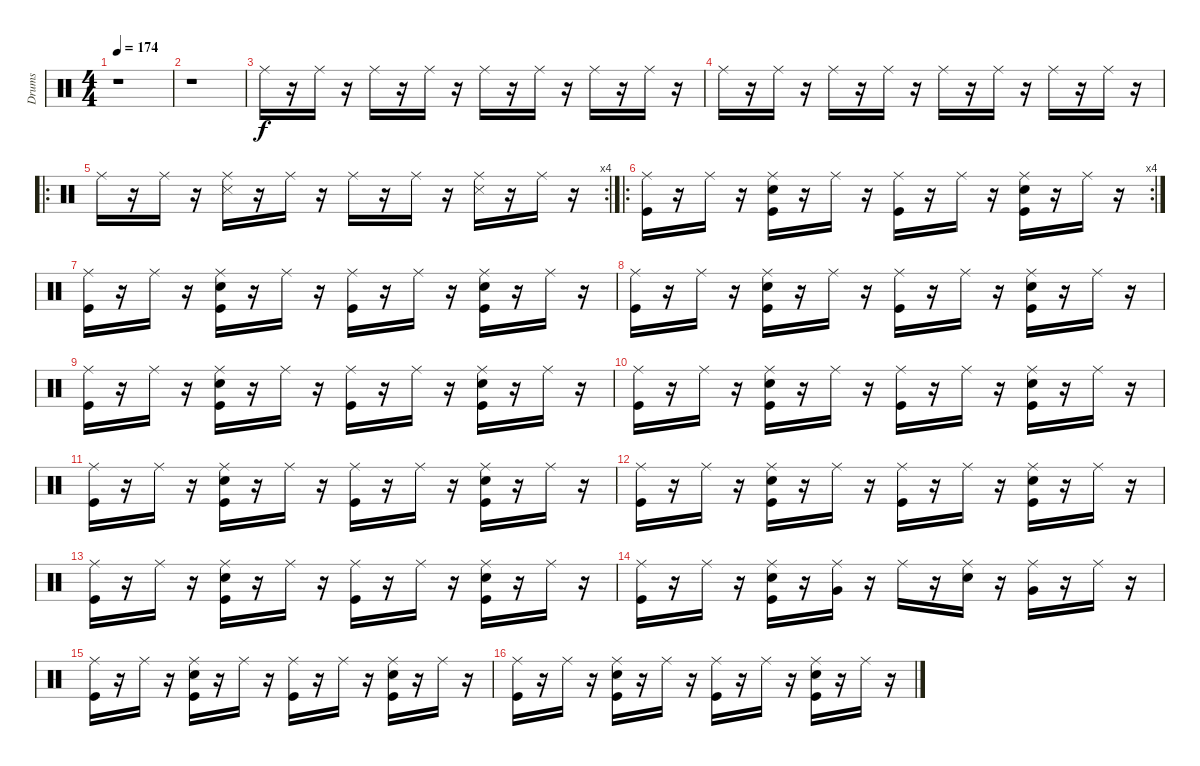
\track ("Drums" "Drums") {instrument percussion}
\staff {score}
\articulation defaults
\ts (4 4)
\tempo 174
\clef neutral
\ks c
r.1{dy f} |
r.1 |
"Ride (middle)".16 r.16 "Ride (middle)".16 r.16 "Ride (middle)".16 r.16 "Ride (middle)".16 r.16 "Ride (middle)".16 r.16 "Ride (middle)".16 r.16 "Ride (middle)".16 r.16 "Ride (middle)".16 r.16 |
"Ride (middle)".16 r.16 "Ride (middle)".16 r.16 "Ride (middle)".16 r.16 "Ride (middle)".16 r.16 "Ride (middle)".16 r.16 "Ride (middle)".16 r.16 "Ride (middle)".16 r.16 "Ride (middle)".16 r.16 |
\ro
\rc 4 "Ride (middle)".16
r.16 "Ride (middle)".16 r.16 ("Snare (side stick) 3" "Ride (middle)").16 r.16 "Ride (middle)".16 r.16 "Ride (middle)".16 r.16 "Ride (middle)".16 r.16 ("Snare (side stick) 3" "Ride (middle)").16 r.16 "Ride (middle)".16 r.16 |
\ro
\rc 4
("Kick (hit)" "Ride (middle)").16 r.16 "Ride (middle)".16 r.16 ("Kick (hit)" "Snare (hit) 2" "Ride (middle)").16 r.16 "Ride (middle)".16 r.16 ("Kick (hit)" "Ride (middle)").16 r.16 "Ride (middle)".16 r.16 ("Kick (hit)" "Snare (hit) 2" "Ride (middle)").16 r.16 "Ride (middle)".16 r.16 |
("Kick (hit)" "Ride (middle)").16 r.16 "Ride (middle)".16 r.16 ("Kick (hit)" "Snare (hit) 2" "Ride (middle)").16 r.16 "Ride (middle)".16 r.16 ("Kick (hit)" "Ride (middle)").16 r.16 "Ride (middle)".16 r.16 ("Kick (hit)" "Snare (hit) 2" "Ride (middle)").16 r.16 "Ride (middle)".16 r.16 |
("Kick (hit)" "Ride (middle)").16 r.16 "Ride (middle)".16 r.16 ("Kick (hit)" "Snare (hit) 2" "Ride (middle)").16 r.16 "Ride (middle)".16 r.16 ("Kick (hit)" "Ride (middle)").16 r.16 "Ride (middle)".16 r.16 ("Kick (hit)" "Snare (hit) 2" "Ride (middle)").16 r.16 "Ride (middle)".16 r.16 |
("Kick (hit)" "Ride (middle)").16 r.16 "Ride (middle)".16 r.16 ("Kick (hit)" "Snare (hit) 2" "Ride (middle)").16 r.16 "Ride (middle)".16 r.16 ("Kick (hit)" "Ride (middle)").16 r.16 "Ride (middle)".16 r.16 ("Kick (hit)" "Snare (hit) 2" "Ride (middle)").16 r.16 "Ride (middle)".16 r.16 |
("Kick (hit)" "Ride (middle)").16 r.16 "Ride (middle)".16 r.16 ("Kick (hit)" "Snare (hit) 2" "Ride (middle)").16 r.16 "Ride (middle)".16 r.16 ("Kick (hit)" "Ride (middle)").16 r.16 "Ride (middle)".16 r.16 ("Kick (hit)" "Snare (hit) 2" "Ride (middle)").16 r.16 "Ride (middle)".16 r.16 |
("Kick (hit)" "Ride (middle)").16 r.16 "Ride (middle)".16 r.16 ("Kick (hit)" "Snare (hit) 2" "Ride (middle)").16 r.16 "Ride (middle)".16 r.16 ("Kick (hit)" "Ride (middle)").16 r.16 "Ride (middle)".16 r.16 ("Kick (hit)" "Snare (hit) 2" "Ride (middle)").16 r.16 "Ride (middle)".16 r.16 |
("Kick (hit)" "Ride (middle)").16 r.16 "Ride (middle)".16 r.16 ("Kick (hit)" "Snare (hit) 2" "Ride (middle)").16 r.16 "Ride (middle)".16 r.16 ("Kick (hit)" "Ride (middle)").16 r.16 "Ride (middle)".16 r.16 ("Kick (hit)" "Snare (hit) 2" "Ride (middle)").16 r.16 "Ride (middle)".16 r.16 |
("Kick (hit)" "Ride (middle)").16 r.16 "Ride (middle)".16 r.16 ("Kick (hit)" "Snare (hit) 2" "Ride (middle)").16 r.16 "Ride (middle)".16 r.16 ("Kick (hit)" "Ride (middle)").16 r.16 "Ride (middle)".16 r.16 ("Kick (hit)" "Snare (hit) 2" "Ride (middle)").16 r.16 "Ride (middle)".16 r.16 |
("Kick (hit)" "Ride (middle)").16 r.16 "Ride (middle)".16 r.16 ("Snare (hit) 2" "Kick (hit)" "Ride (middle)").16 r.16 ("Very Low Tom (hit)" "Ride (middle)").16 r.16 "Ride (middle)".16 r.16 ("Snare (hit) 2" "Ride (middle)").16 r.16 ("Very Low Tom (hit)" "Ride (middle)").16 r.16 "Ride (middle)".16 r.16 |
("Kick (hit)" "Ride (middle)").16 r.16 "Ride (middle)".16 r.16 ("Kick (hit)" "Snare (hit) 2" "Ride (middle)").16 r.16 "Ride (middle)".16 r.16 ("Kick (hit)" "Ride (middle)").16 r.16 "Ride (middle)".16 r.16 ("Kick (hit)" "Snare (hit) 2" "Ride (middle)").16 r.16 "Ride (middle)".16 r.16 |
("Kick (hit)" "Ride (middle)").16 r.16 "Ride (middle)".16 r.16 ("Kick (hit)" "Snare (hit) 2" "Ride (middle)").16 r.16 "Ride (middle)".16 r.16 ("Kick (hit)" "Ride (middle)").16 r.16 "Ride (middle)".16 r.16 ("Kick (hit)" "Snare (hit) 2" "Ride (middle)").16 r.16 "Ride (middle)".16 r.16
